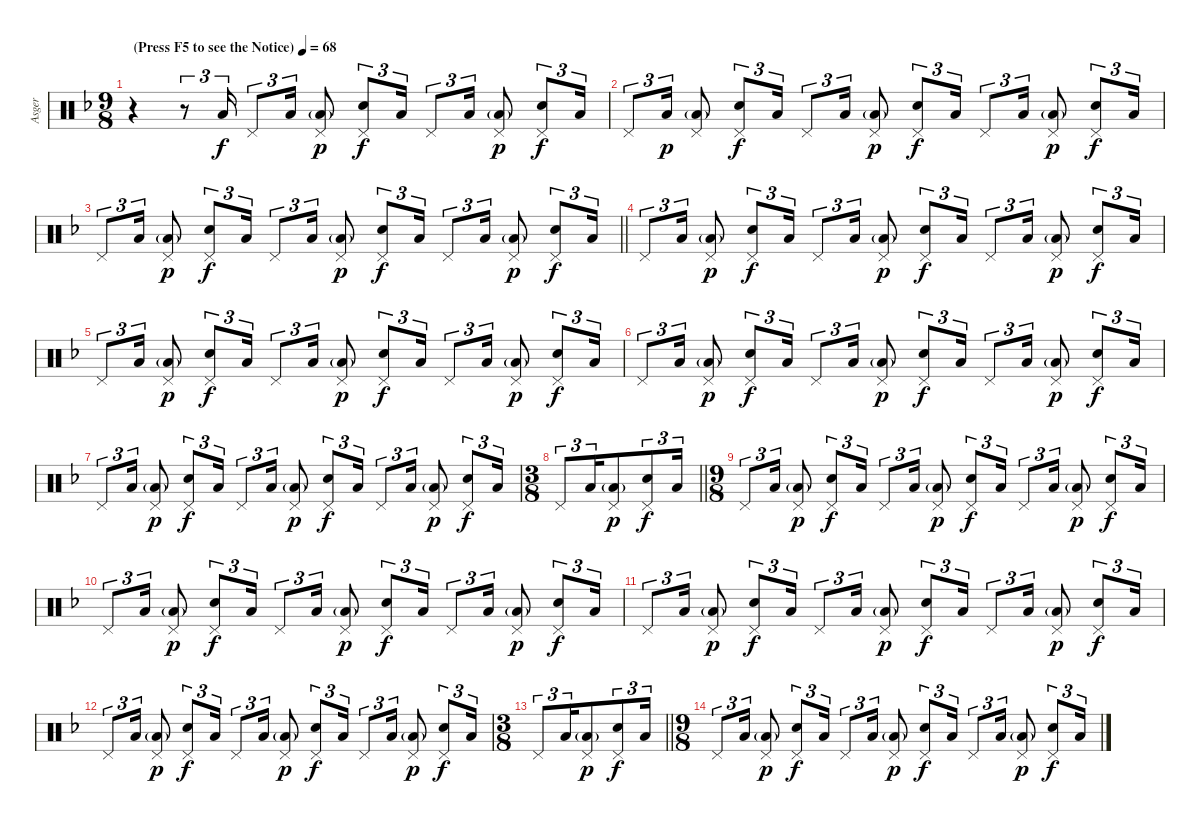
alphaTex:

\track ("Asger" "Asger") {instrument percussion}
\staff {score}
\articulation defaults
\ts (9 8)
\tempo (68 "(Press F5 to see the Notice)")
\clef neutral
\ks dminor
r.4{dy f} r.8{tu (3 2)} "Low Floor Tom (hit)".16{tu (3 2) beam split} "Pedal Hi-Hat (hit)".8{tu (3 2)} "Low Floor Tom (hit)".16{tu (3 2)} ("Pedal Hi-Hat (hit)" "Low Floor Tom (hit)"{g}).8{dy p} ("Pedal Hi-Hat (hit)" "Snare (hit) 2").8{tu (3 2) dy f} "Low Floor Tom (hit)".16{tu (3 2) beam split} "Pedal Hi-Hat (hit)".8{tu (3 2)} "Low Floor Tom (hit)".16{tu (3 2)} ("Pedal Hi-Hat (hit)" "Low Floor Tom (hit)"{g}).8{dy p} ("Pedal Hi-Hat (hit)" "Snare (hit) 2").8{tu (3 2) dy f} "Low Floor Tom (hit)".16{tu (3 2)} |
"Pedal Hi-Hat (hit)".8{tu (3 2)} "Low Floor Tom (hit)".16{tu (3 2) dy p} ("Pedal Hi-Hat (hit)" "Low Floor Tom (hit)"{g}).8 ("Pedal Hi-Hat (hit)" "Snare (hit) 2").8{tu (3 2) dy f} "Low Floor Tom (hit)".16{tu (3 2)} "Pedal Hi-Hat (hit)".8{tu (3 2)} "Low Floor Tom (hit)".16{tu (3 2)} ("Pedal Hi-Hat (hit)" "Low Floor Tom (hit)"{g}).8{dy p} ("Pedal Hi-Hat (hit)" "Snare (hit) 2").8{tu (3 2) dy f} "Low Floor Tom (hit)".16{tu (3 2)} "Pedal Hi-Hat (hit)".8{tu (3 2)} "Low Floor Tom (hit)".16{tu (3 2)} ("Pedal Hi-Hat (hit)" "Low Floor Tom (hit)"{g}).8{dy p} ("Pedal Hi-Hat (hit)" "Snare (hit) 2").8{tu (3 2) dy f} "Low Floor Tom (hit)".16{tu (3 2)} |
\barLineRight lightlight "Pedal Hi-Hat (hit)".8{tu (3 2)} "Low Floor Tom (hit)".16{tu (3 2)}
("Pedal Hi-Hat (hit)" "Low Floor Tom (hit)"{g}).8{dy p} ("Pedal Hi-Hat (hit)" "Snare (hit) 2").8{tu (3 2) dy f} "Low Floor Tom (hit)".16{tu (3 2)} "Pedal Hi-Hat (hit)".8{tu (3 2)} "Low Floor Tom (hit)".16{tu (3 2)} ("Pedal Hi-Hat (hit)" "Low Floor Tom (hit)"{g}).8{dy p} ("Pedal Hi-Hat (hit)" "Snare (hit) 2").8{tu (3 2) dy f} "Low Floor Tom (hit)".16{tu (3 2)} "Pedal Hi-Hat (hit)".8{tu (3 2)} "Low Floor Tom (hit)".16{tu (3 2)} ("Pedal Hi-Hat (hit)" "Low Floor Tom (hit)"{g}).8{dy p} ("Pedal Hi-Hat (hit)" "Snare (hit) 2").8{tu (3 2) dy f} "Low Floor Tom (hit)".16{tu (3 2)} |
"Pedal Hi-Hat (hit)".8{tu (3 2)} "Low Floor Tom (hit)".16{tu (3 2)} ("Pedal Hi-Hat (hit)" "Low Floor Tom (hit)"{g}).8{dy p} ("Pedal Hi-Hat (hit)" "Snare (hit) 2").8{tu (3 2) dy f} "Low Floor Tom (hit)".16{tu (3 2)} "Pedal Hi-Hat (hit)".8{tu (3 2)} "Low Floor Tom (hit)".16{tu (3 2)} ("Pedal Hi-Hat (hit)" "Low Floor Tom (hit)"{g}).8{dy p} ("Pedal Hi-Hat (hit)" "Snare (hit) 2").8{tu (3 2) dy f} "Low Floor Tom (hit)".16{tu (3 2)} "Pedal Hi-Hat (hit)".8{tu (3 2)} "Low Floor Tom (hit)".16{tu (3 2)} ("Pedal Hi-Hat (hit)" "Low Floor Tom (hit)"{g}).8{dy p} ("Pedal Hi-Hat (hit)" "Snare (hit) 2").8{tu (3 2) dy f} "Low Floor Tom (hit)".16{tu (3 2)} |
"Pedal Hi-Hat (hit)".8{tu (3 2)} "Low Floor Tom (hit)".16{tu (3 2)} ("Pedal Hi-Hat (hit)" "Low Floor Tom (hit)"{g}).8{dy p} ("Pedal Hi-Hat (hit)" "Snare (hit) 2").8{tu (3 2) dy f} "Low Floor Tom (hit)".16{tu (3 2)} "Pedal Hi-Hat (hit)".8{tu (3 2)} "Low Floor Tom (hit)".16{tu (3 2)} ("Pedal Hi-Hat (hit)" "Low Floor Tom (hit)"{g}).8{dy p} ("Pedal Hi-Hat (hit)" "Snare (hit) 2").8{tu (3 2) dy f} "Low Floor Tom (hit)".16{tu (3 2)} "Pedal Hi-Hat (hit)".8{tu (3 2)} "Low Floor Tom (hit)".16{tu (3 2)} ("Pedal Hi-Hat (hit)" "Low Floor Tom (hit)"{g}).8{dy p} ("Pedal Hi-Hat (hit)" "Snare (hit) 2").8{tu (3 2) dy f} "Low Floor Tom (hit)".16{tu (3 2)} |
"Pedal Hi-Hat (hit)".8{tu (3 2)} "Low Floor Tom (hit)".16{tu (3 2)} ("Pedal Hi-Hat (hit)" "Low Floor Tom (hit)"{g}).8{dy p} ("Pedal Hi-Hat (hit)" "Snare (hit) 2").8{tu (3 2) dy f} "Low Floor Tom (hit)".16{tu (3 2)} "Pedal Hi-Hat (hit)".8{tu (3 2)} "Low Floor Tom (hit)".16{tu (3 2)} ("Pedal Hi-Hat (hit)" "Low Floor Tom (hit)"{g}).8{dy p} ("Pedal Hi-Hat (hit)" "Snare (hit) 2").8{tu (3 2) dy f} "Low Floor Tom (hit)".16{tu (3 2)} "Pedal Hi-Hat (hit)".8{tu (3 2)} "Low Floor Tom (hit)".16{tu (3 2)} ("Pedal Hi-Hat (hit)" "Low Floor Tom (hit)"{g}).8{dy p} ("Pedal Hi-Hat (hit)" "Snare (hit) 2").8{tu (3 2) dy f} "Low Floor Tom (hit)".16{tu (3 2)} |
"Pedal Hi-Hat (hit)".8{tu (3 2)} "Low Floor Tom (hit)".16{tu (3 2)} ("Pedal Hi-Hat (hit)" "Low Floor Tom (hit)"{g}).8{dy p} ("Pedal Hi-Hat (hit)" "Snare (hit) 2").8{tu (3 2) dy f} "Low Floor Tom (hit)".16{tu (3 2)} "Pedal Hi-Hat (hit)".8{tu (3 2)} "Low Floor Tom (hit)".16{tu (3 2)} ("Pedal Hi-Hat (hit)" "Low Floor Tom (hit)"{g}).8{dy p} ("Pedal Hi-Hat (hit)" "Snare (hit) 2").8{tu (3 2) dy f} "Low Floor Tom (hit)".16{tu (3 2)} "Pedal Hi-Hat (hit)".8{tu (3 2)} "Low Floor Tom (hit)".16{tu (3 2)} ("Pedal Hi-Hat (hit)" "Low Floor Tom (hit)"{g}).8{dy p} ("Pedal Hi-Hat (hit)" "Snare (hit) 2").8{tu (3 2) dy f} "Low Floor Tom (hit)".16{tu (3 2)} |
\ts (3 8)
\barLineRight lightlight "Pedal Hi-Hat (hit)".8{tu (3 2)} "Low Floor Tom (hit)".16{tu (3 2) beam merge}
("Pedal Hi-Hat (hit)" "Low Floor Tom (hit)"{g}).8{dy p beam merge} ("Pedal Hi-Hat (hit)" "Snare (hit) 2").8{tu (3 2) dy f} "Low Floor Tom (hit)".16{tu (3 2)} |
\ts (9 8)
"Pedal Hi-Hat (hit)".8{tu (3 2)} "Low Floor Tom (hit)".16{tu (3 2)} ("Pedal Hi-Hat (hit)" "Low Floor Tom (hit)"{g}).8{dy p} ("Pedal Hi-Hat (hit)" "Snare (hit) 2").8{tu (3 2) dy f} "Low Floor Tom (hit)".16{tu (3 2)} "Pedal Hi-Hat (hit)".8{tu (3 2)} "Low Floor Tom (hit)".16{tu (3 2)} ("Pedal Hi-Hat (hit)" "Low Floor Tom (hit)"{g}).8{dy p} ("Pedal Hi-Hat (hit)" "Snare (hit) 2").8{tu (3 2) dy f} "Low Floor Tom (hit)".16{tu (3 2)} "Pedal Hi-Hat (hit)".8{tu (3 2)} "Low Floor Tom (hit)".16{tu (3 2)} ("Pedal Hi-Hat (hit)" "Low Floor Tom (hit)"{g}).8{dy p} ("Pedal Hi-Hat (hit)" "Snare (hit) 2").8{tu (3 2) dy f} "Low Floor Tom (hit)".16{tu (3 2)} |
"Pedal Hi-Hat (hit)".8{tu (3 2)} "Low Floor Tom (hit)".16{tu (3 2)} ("Pedal Hi-Hat (hit)" "Low Floor Tom (hit)"{g}).8{dy p} ("Pedal Hi-Hat (hit)" "Snare (hit) 2").8{tu (3 2) dy f} "Low Floor Tom (hit)".16{tu (3 2)} "Pedal Hi-Hat (hit)".8{tu (3 2)} "Low Floor Tom (hit)".16{tu (3 2)} ("Pedal Hi-Hat (hit)" "Low Floor Tom (hit)"{g}).8{dy p} ("Pedal Hi-Hat (hit)" "Snare (hit) 2").8{tu (3 2) dy f} "Low Floor Tom (hit)".16{tu (3 2)} "Pedal Hi-Hat (hit)".8{tu (3 2)} "Low Floor Tom (hit)".16{tu (3 2)} ("Pedal Hi-Hat (hit)" "Low Floor Tom (hit)"{g}).8{dy p} ("Pedal Hi-Hat (hit)" "Snare (hit) 2").8{tu (3 2) dy f} "Low Floor Tom (hit)".16{tu (3 2)} |
"Pedal Hi-Hat (hit)".8{tu (3 2)} "Low Floor Tom (hit)".16{tu (3 2)} ("Pedal Hi-Hat (hit)" "Low Floor Tom (hit)"{g}).8{dy p} ("Pedal Hi-Hat (hit)" "Snare (hit) 2").8{tu (3 2) dy f} "Low Floor Tom (hit)".16{tu (3 2)} "Pedal Hi-Hat (hit)".8{tu (3 2)} "Low Floor Tom (hit)".16{tu (3 2)} ("Pedal Hi-Hat (hit)" "Low Floor Tom (hit)"{g}).8{dy p} ("Pedal Hi-Hat (hit)" "Snare (hit) 2").8{tu (3 2) dy f} "Low Floor Tom (hit)".16{tu (3 2)} "Pedal Hi-Hat (hit)".8{tu (3 2)} "Low Floor Tom (hit)".16{tu (3 2)} ("Pedal Hi-Hat (hit)" "Low Floor Tom (hit)"{g}).8{dy p} ("Pedal Hi-Hat (hit)" "Snare (hit) 2").8{tu (3 2) dy f} "Low Floor Tom (hit)".16{tu (3 2)} |
"Pedal Hi-Hat (hit)".8{tu (3 2)} "Low Floor Tom (hit)".16{tu (3 2)} ("Pedal Hi-Hat (hit)" "Low Floor Tom (hit)"{g}).8{dy p} ("Pedal Hi-Hat (hit)" "Snare (hit) 2").8{tu (3 2) dy f} "Low Floor Tom (hit)".16{tu (3 2)} "Pedal Hi-Hat (hit)".8{tu (3 2)} "Low Floor Tom (hit)".16{tu (3 2)} ("Pedal Hi-Hat (hit)" "Low Floor Tom (hit)"{g}).8{dy p} ("Pedal Hi-Hat (hit)" "Snare (hit) 2").8{tu (3 2) dy f} "Low Floor Tom (hit)".16{tu (3 2)} "Pedal Hi-Hat (hit)".8{tu (3 2)} "Low Floor Tom (hit)".16{tu (3 2)} ("Pedal Hi-Hat (hit)" "Low Floor Tom (hit)"{g}).8{dy p} ("Pedal Hi-Hat (hit)" "Snare (hit) 2").8{tu (3 2) dy f} "Low Floor Tom (hit)".16{tu (3 2)} |
\ts (3 8)
\barLineRight lightlight "Pedal Hi-Hat (hit)".8{tu (3 2)} "Low Floor Tom (hit)".16{tu (3 2) beam merge}
("Pedal Hi-Hat (hit)" "Low Floor Tom (hit)"{g}).8{dy p beam merge} ("Pedal Hi-Hat (hit)" "Snare (hit) 2").8{tu (3 2) dy f} "Low Floor Tom (hit)".16{tu (3 2)} |
\ts (9 8)
"Pedal Hi-Hat (hit)".8{tu (3 2) volume 0} "Low Floor Tom (hit)".16{tu (3 2)} ("Pedal Hi-Hat (hit)" "Low Floor Tom (hit)"{g}).8{dy p} ("Pedal Hi-Hat (hit)" "Snare (hit) 2").8{tu (3 2) dy f} "Low Floor Tom (hit)".16{tu (3 2)} "Pedal Hi-Hat (hit)".8{tu (3 2)} "Low Floor Tom (hit)".16{tu (3 2)} ("Pedal Hi-Hat (hit)" "Low Floor Tom (hit)"{g}).8{dy p} ("Pedal Hi-Hat (hit)" "Snare (hit) 2").8{tu (3 2) dy f} "Low Floor Tom (hit)".16{tu (3 2)} "Pedal Hi-Hat (hit)".8{tu (3 2)} "Low Floor Tom (hit)".16{tu (3 2)} ("Pedal Hi-Hat (hit)" "Low Floor Tom (hit)"{g}).8{dy p} ("Pedal Hi-Hat (hit)" "Snare (hit) 2").8{tu (3 2) dy f} "Low Floor Tom (hit)".16{tu (3 2)}
